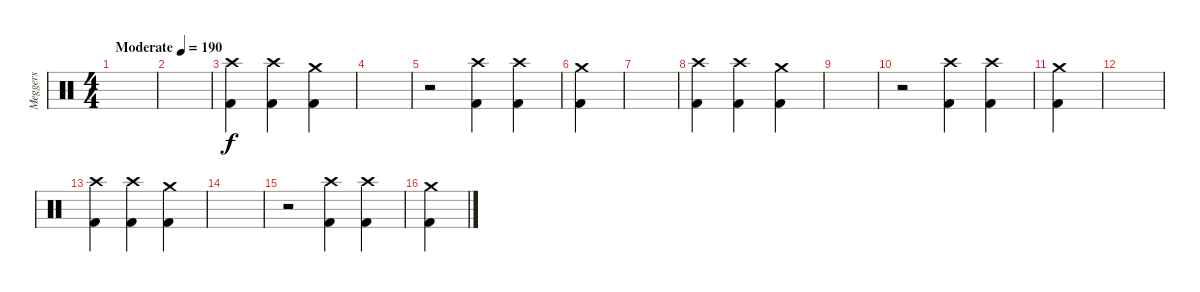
\track ("Meggers" "Meggers") {instrument percussion}
\staff {score}
\articulation defaults
\ts (4 4)
\tempo (190 "Moderate")
\clef neutral
\ks c
|
|
("Crash high (hit)" "Kick (hit) 2").4 ("Crash high (hit)" "Kick (hit) 2").4 ("Crash medium (hit)" "Kick (hit) 2").4 |
|
r.2 ("Crash high (hit)" "Kick (hit) 2").4 ("Crash high (hit)" "Kick (hit) 2").4 |
("Crash medium (hit)" "Kick (hit) 2").4 |
|
("Crash high (hit)" "Kick (hit) 2").4 ("Crash high (hit)" "Kick (hit) 2").4 ("Crash medium (hit)" "Kick (hit) 2").4 |
|
r.2 ("Crash high (hit)" "Kick (hit) 2").4 ("Crash high (hit)" "Kick (hit) 2").4 |
("Crash medium (hit)" "Kick (hit) 2").4 |
|
("Crash high (hit)" "Kick (hit) 2").4 ("Crash high (hit)" "Kick (hit) 2").4 ("Crash medium (hit)" "Kick (hit) 2").4 |
|
r.2 ("Crash high (hit)" "Kick (hit) 2").4 ("Crash high (hit)" "Kick (hit) 2").4 |
("Crash medium (hit)" "Kick (hit) 2").4
